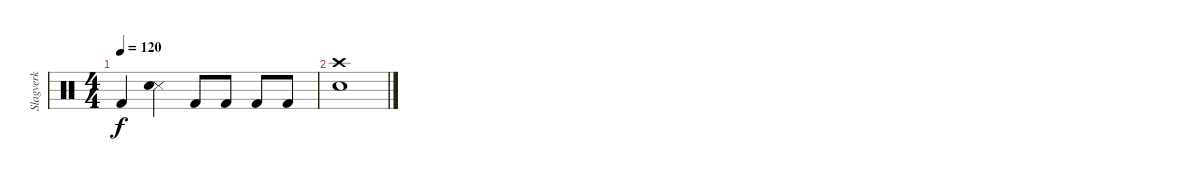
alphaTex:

\track ("Slagverk" "Slagverk") {instrument percussion}
\staff {score}
\articulation defaults
\ts (4 4)
\tempo 120
\clef neutral
\ks c "Kick (hit) 2".4{dy f}
("Snare (side stick) 3" "Snare (hit) 2").4 "Kick (hit) 2".8 "Kick (hit) 2".8 "Kick (hit) 2".8 "Kick (hit) 2".8 |
("Crash high (hit)" "Snare (hit) 2").1
